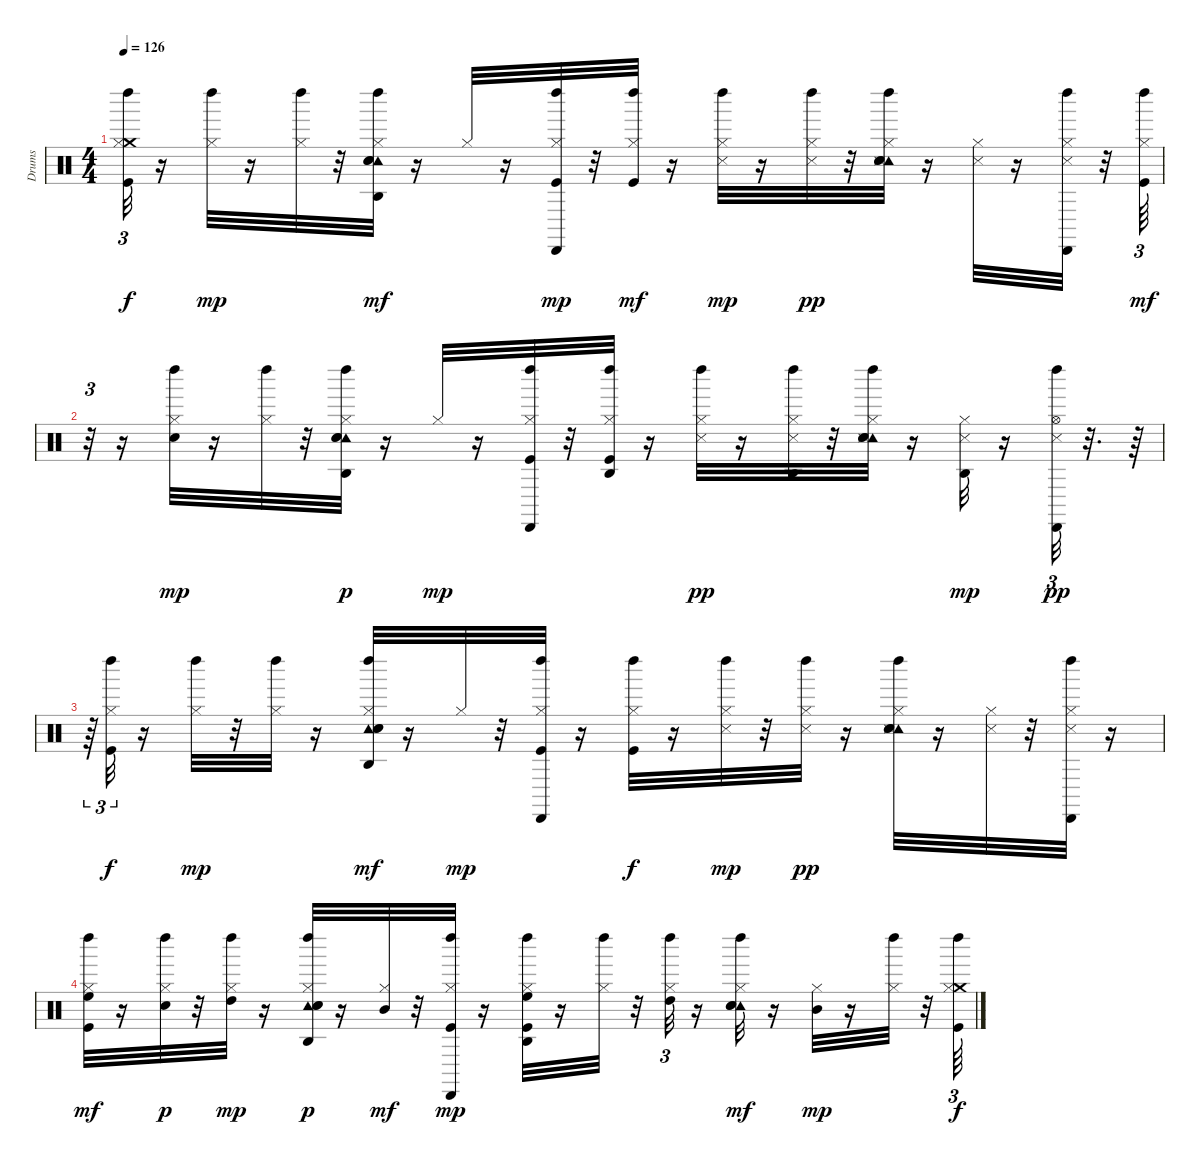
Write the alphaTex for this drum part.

\track ("Drums" "Drums") {instrument percussion}
\staff {score}
\articulation defaults
\ts (4 4)
\tempo 126
\clef neutral
\ks c
("Crash medium (hit)" "Kick (hit)" "Hi-Hat (closed)" "Left Maraca (hit)").32{tu (3 2) dy f} r.16 ("Hi-Hat (closed)" "Left Maraca (hit)").32{dy mp} r.16 ("Hi-Hat (closed)" "Left Maraca (hit)").32 r.32 ("Hi-Hat (closed)" "Tambourine (hit)" "Agogo high (hit)" "Snare (hit) 2" "Left Maraca (hit)" "Hand Clap (hit)").32{dy mf} r.16 "Hi-Hat (closed)".32 r.16 ("Cabasa (hit)" "Kick (hit)" "Hi-Hat (closed)" "Left Maraca (hit)").32{dy mp} r.32 ("Hi-Hat (closed)" "Kick (hit)" "Left Maraca (hit)").32{dy mf} r.16 ("Hi-Hat (closed)" "Snare (side stick) 3" "Left Maraca (hit)").32{dy mp} r.16 ("Hi-Hat (closed)" "Left Maraca (hit)" "Snare (side stick) 3").32{dy pp} r.32 ("Hi-Hat (closed)" "Tambourine (hit)" "Hand Clap (hit)" "Snare (hit) 2" "Snare (side stick) 3" "Left Maraca (hit)").32 r.16 ("Hi-Hat (closed)" "Snare (side stick) 3").32 r.16 ("Cabasa (hit)" "Hi-Hat (closed)" "Snare (side stick) 3" "Left Maraca (hit)").32 r.32 ("Left Maraca (hit)" "Kick (hit)" "Hi-Hat (closed)").64{tu (3 2) dy mf} |
r.32{tu (3 2)} r.16 ("Left Maraca (hit)" "Hi-Hat (closed)" "Electric Snare (hit)").32{dy mp} r.16 ("Left Maraca (hit)" "Hi-Hat (closed)").32 r.32 ("Left Maraca (hit)" "Tambourine (hit)" "Snare (hit) 2" "Hi-Hat (closed)" "Agogo high (hit)" "Hand Clap (hit)").32{dy p} r.16 "Hi-Hat (closed)".32{dy mp} r.16 ("Kick (hit)" "Hi-Hat (closed)" "Left Maraca (hit)" "Cabasa (hit)").32 r.32 ("Kick (hit)" "Hi-Hat (closed)" "Left Maraca (hit)" "Agogo high (hit)").32 r.16 ("Hi-Hat (closed)" "Left Maraca (hit)" "Snare (side stick) 3").32{dy pp} r.16 ("Hi-Hat (closed)" "Left Maraca (hit)" "Agogo high (hit)" "Snare (side stick) 3").32 r.32 ("Hi-Hat (closed)" "Tambourine (hit)" "Hand Clap (hit)" "Snare (hit) 2" "Snare (side stick) 3" "Left Maraca (hit)").32 r.16 ("Hi-Hat (closed)" "Snare (side stick) 3" "Agogo high (hit)").32{dy mp} r.16 ("Hi-Hat (open)" "Cabasa (hit)" "Snare (side stick) 3" "Left Maraca (hit)").32{tu (3 2) dy pp} r.32{d} r.64 |
r.64{tu (3 2)} ("Kick (hit)" "Hi-Hat (closed)" "Left Maraca (hit)").32{tu (3 2) dy f} r.16 ("Hi-Hat (closed)" "Left Maraca (hit)").32{dy mp} r.32 ("Hi-Hat (closed)" "Left Maraca (hit)").32 r.16 ("Hi-Hat (closed)" "Tambourine (hit)" "Agogo high (hit)" "Snare (hit) 2" "Left Maraca (hit)" "Hand Clap (hit)").32{dy mf} r.16 "Hi-Hat (closed)".32{dy mp} r.32 ("Cabasa (hit)" "Kick (hit)" "Hi-Hat (closed)" "Left Maraca (hit)").32 r.16 ("Hi-Hat (closed)" "Kick (hit)" "Left Maraca (hit)").32{dy f} r.16 ("Hi-Hat (closed)" "Snare (side stick) 3" "Left Maraca (hit)").32{dy mp} r.32 ("Hi-Hat (closed)" "Left Maraca (hit)" "Snare (side stick) 3").32{dy pp} r.16 ("Hi-Hat (closed)" "Tambourine (hit)" "Hand Clap (hit)" "Snare (hit) 2" "Snare (side stick) 3" "Left Maraca (hit)").32 r.16 ("Hi-Hat (closed)" "Snare (side stick) 3").32 r.32 ("Cabasa (hit)" "Hi-Hat (closed)" "Snare (side stick) 3" "Left Maraca (hit)").32 r.16 |
("Left Maraca (hit)" "Kick (hit)" "Hi-Hat (closed)" "High Floor Tom (hit)").32{dy mf} r.16 ("Left Maraca (hit)" "Hi-Hat (closed)" "Electric Snare (hit)").32{dy p} r.32 ("Left Maraca (hit)" "High Tom (hit)" "Hi-Hat (closed)").32{dy mp} r.16 ("Left Maraca (hit)" "Tambourine (hit)" "Snare (hit) 2" "Hi-Hat (closed)" "Agogo high (hit)" "Hand Clap (hit)").32{dy p} r.16 ("Mid Tom (hit)" "Hi-Hat (closed)").32{dy mf} r.32 ("Kick (hit)" "Hi-Hat (closed)" "Left Maraca (hit)" "Cabasa (hit)").32{dy mp} r.16 ("Hi-Hat (closed)" "High Floor Tom (hit)" "Kick (hit)" "Left Maraca (hit)" "Agogo high (hit)").32 r.16 ("Hi-Hat (closed)" "Left Maraca (hit)").32 r.32 ("Hi-Hat (closed)" "High Tom (hit)" "Left Maraca (hit)").32{tu (3 2)} r.16 ("Hi-Hat (closed)" "Tambourine (hit)" "Hand Clap (hit)" "Snare (hit) 2" "Left Maraca (hit)").32{dy mf} r.16 ("Hi-Hat (closed)" "Mid Tom (hit)").32{dy mp} r.16 ("Hi-Hat (closed)" "Left Maraca (hit)").32 r.32 ("Crash medium (hit)" "Kick (hit)" "Hi-Hat (closed)" "Left Maraca (hit)").64{tu (3 2) dy f}
